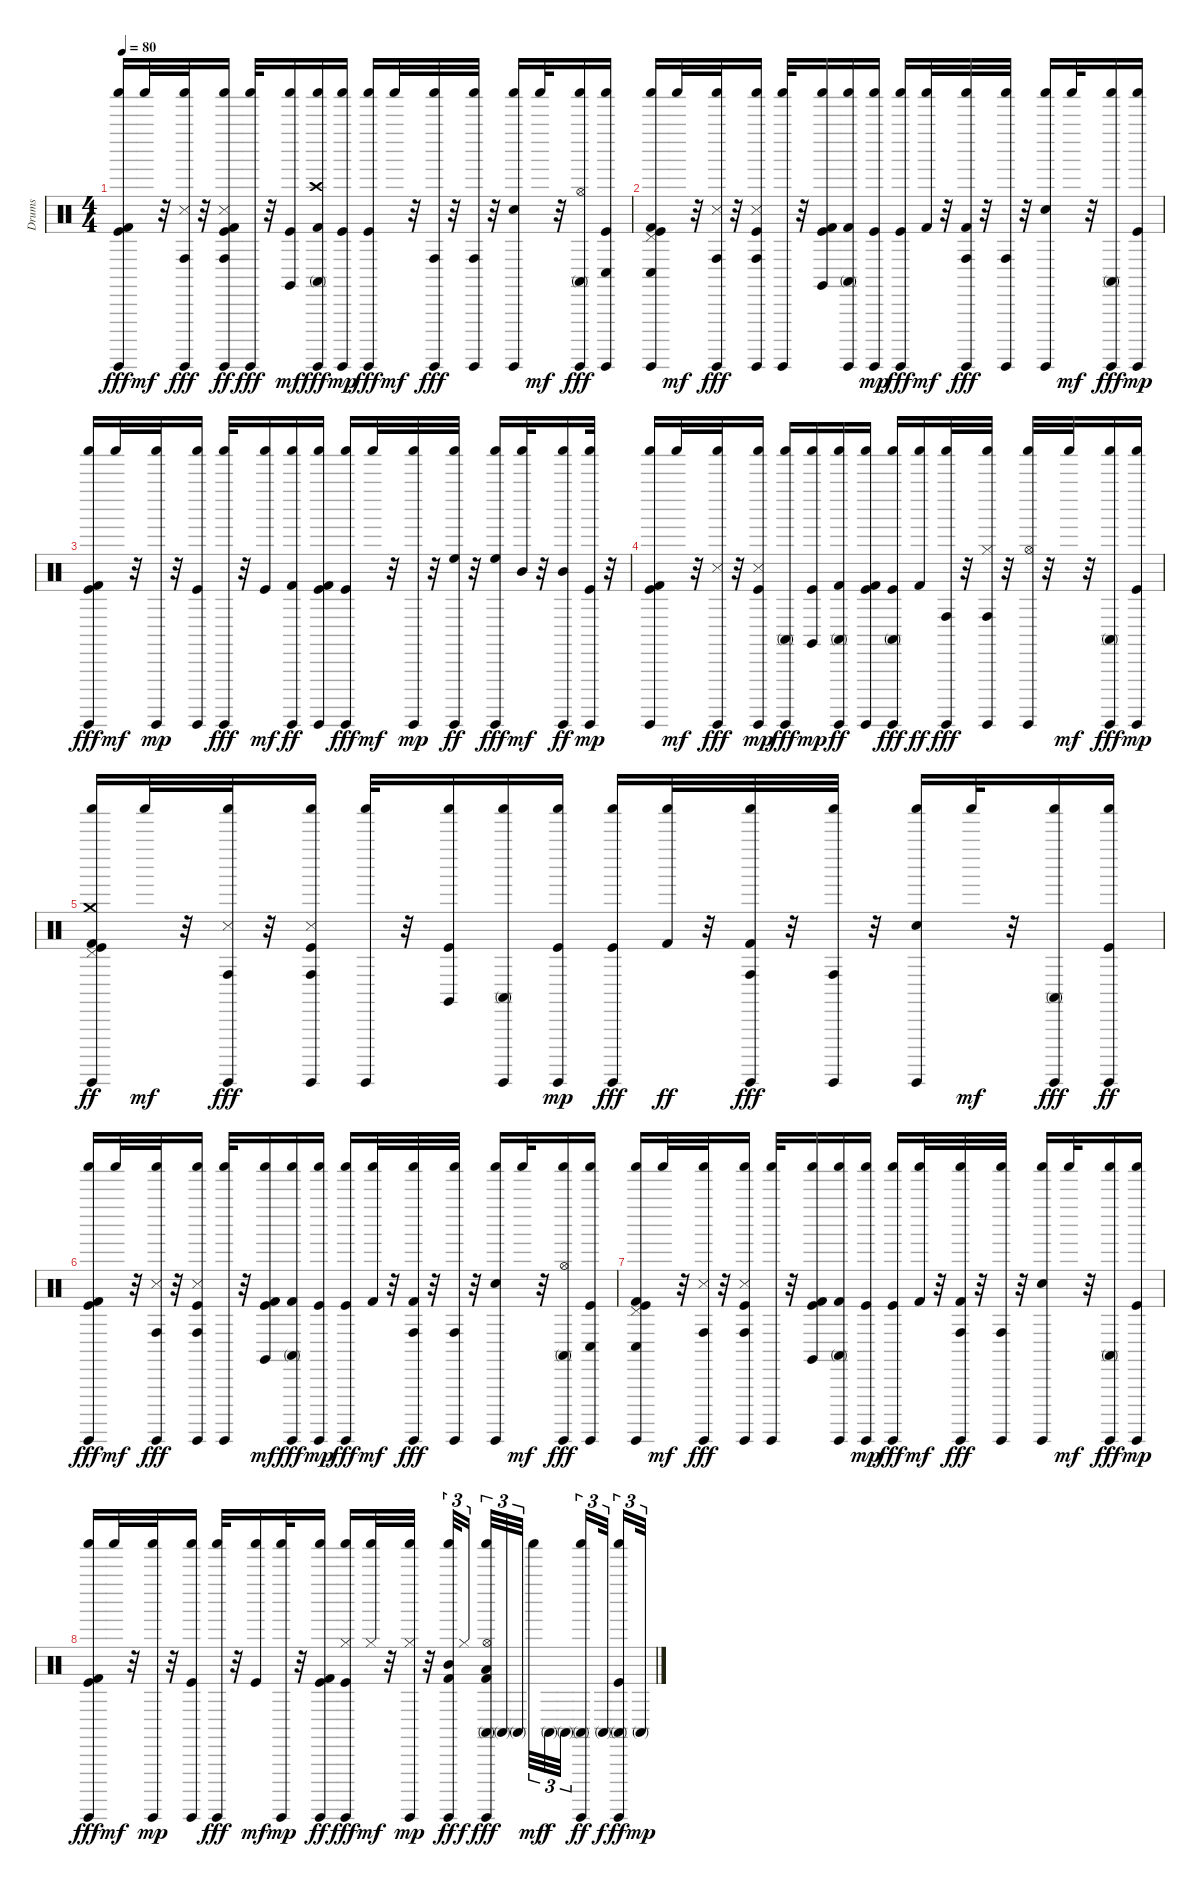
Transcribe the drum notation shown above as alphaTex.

\track ("Drums" "Drums") {instrument percussion}
\staff {score}
\articulation defaults
\ts (4 4)
\tempo 80
\clef neutral
\ks c
("Kick (hit)" "Guiro (hit)" "Kick (hit) 2" "Shaker (hit)").16{dy fff} "Shaker (hit)".32{dy mf} r.32 ("Guiro (hit)" "Shaker (hit)" "Snare (side stick) 3" "Conga high (hit)").32{dy fff} r.32 ("Kick (hit)" "Guiro (hit)" "Shaker (hit)" "Snare (side stick) 3" "Conga high (hit)" "Kick (hit) 2").16{dy ff} ("Guiro (hit)" "Shaker (hit)").32{dy fff} r.32 ("Kick (hit)" "Claves (hit)" "Shaker (hit)").16{dy mf} ("Guiro (hit)" "Shaker (hit)" "Conga high (mute)" "Kick (hit) 2" "Crash high (hit)").16{dy fff} ("Kick (hit)" "Guiro (hit)" "Shaker (hit)").16{dy mp} ("Kick (hit)" "Guiro (hit)" "Shaker (hit)").16{dy fff} "Shaker (hit)".32{dy mf} r.32 ("Guiro (hit)" "Shaker (hit)" "Conga high (hit)").32{dy fff} r.32 ("Guiro (hit)" "Shaker (hit)" "Conga high (hit)").32 r.32 ("Guiro (hit)" "Electric Snare (hit)" "Shaker (hit)").16 "Shaker (hit)".32{dy mf} r.32 ("Guiro (hit)" "Shaker (hit)" "Hi-Hat (open)" "Conga high (mute)").16{dy fff} ("Kick (hit)" "Guiro (hit)" "Shaker (hit)" "Conga low (hit)").16 |
("Kick (hit)" "Guiro (hit)" "Kick (hit) 2" "Shaker (hit)" "Pedal Hi-Hat (hit)" "Conga low (hit)").16 "Shaker (hit)".32{dy mf} r.32 ("Guiro (hit)" "Snare (side stick) 3" "Shaker (hit)" "Conga high (hit)").32{dy fff} r.32 ("Kick (hit)" "Guiro (hit)" "Shaker (hit)" "Snare (side stick) 3" "Conga high (hit)").16 ("Guiro (hit)" "Shaker (hit)").32 r.32 ("Kick (hit)" "Kick (hit) 2" "Shaker (hit)" "Claves (hit)").16 ("Guiro (hit)" "Kick (hit) 2" "Shaker (hit)" "Conga high (mute)").16 ("Kick (hit)" "Guiro (hit)" "Shaker (hit)").16{dy mp} ("Kick (hit)" "Guiro (hit)" "Shaker (hit)").16{dy fff} ("Kick (hit) 2" "Shaker (hit)").32{dy mf} r.32 ("Guiro (hit)" "Kick (hit) 2" "Shaker (hit)" "Conga high (hit)").32{dy fff} r.32 ("Guiro (hit)" "Shaker (hit)" "Conga high (hit)").32 r.32 ("Guiro (hit)" "Electric Snare (hit)" "Shaker (hit)").16 "Shaker (hit)".32{dy mf} r.32 ("Guiro (hit)" "Shaker (hit)" "Conga high (mute)").16{dy fff} ("Kick (hit)" "Guiro (hit)" "Shaker (hit)").16{dy mp} |
("Kick (hit)" "Guiro (hit)" "Kick (hit) 2" "Shaker (hit)").16{dy fff} "Shaker (hit)".32{dy mf} r.32 ("Guiro (hit)" "Shaker (hit)").32{dy mp} r.32 ("Kick (hit)" "Guiro (hit)" "Shaker (hit)").16 ("Guiro (hit)" "Shaker (hit)").32{dy fff} r.32 ("Kick (hit)" "Shaker (hit)").16{dy mf} ("Guiro (hit)" "Shaker (hit)" "Kick (hit) 2").16{dy ff} ("Kick (hit)" "Guiro (hit)" "Shaker (hit)" "Kick (hit) 2").16 ("Kick (hit)" "Guiro (hit)" "Shaker (hit)").16{dy fff} "Shaker (hit)".32{dy mf} r.32 ("Guiro (hit)" "Shaker (hit)").32{dy mp} r.32 ("Guiro (hit)" "Shaker (hit)" "High Floor Tom (hit)").32{dy ff} r.32 ("Guiro (hit)" "Shaker (hit)" "High Floor Tom (hit)").16{dy fff} ("Shaker (hit)" "Mid Tom (hit)").32{dy mf} r.32 ("Guiro (hit)" "Shaker (hit)" "Mid Tom (hit)").16{dy ff} ("Guiro (hit)" "Shaker (hit)" "Kick (hit)").32{dy mp} r.32 |
("Guiro (hit)" "Shaker (hit)" "Kick (hit) 2" "Kick (hit)").16 "Shaker (hit)".32{dy mf} r.32 ("Guiro (hit)" "Shaker (hit)" "Snare (side stick) 3").32{dy fff} r.32 ("Guiro (hit)" "Shaker (hit)" "Snare (side stick) 3" "Kick (hit)").16{dy mp} ("Guiro (hit)" "Shaker (hit)" "Conga high (mute)").16{dy fff} ("Shaker (hit)" "Claves (hit)" "Kick (hit)").16{dy mp} ("Guiro (hit)" "Shaker (hit)" "Conga high (mute)" "Kick (hit) 2").16{dy ff} ("Guiro (hit)" "Shaker (hit)" "Kick (hit)" "Kick (hit) 2").16 ("Guiro (hit)" "Shaker (hit)" "Kick (hit)" "Conga high (mute)").16{dy fff} ("Shaker (hit)" "Kick (hit) 2").16{dy ff} ("Guiro (hit)" "Shaker (hit)" "Conga high (hit)").32{dy fff} r.32 ("Guiro (hit)" "Shaker (hit)" "Conga high (hit)" "Hi-Hat (closed)").32 r.32 ("Guiro (hit)" "Shaker (hit)" "Hi-Hat (open)").32 r.32 "Shaker (hit)".32{dy mf} r.32 ("Guiro (hit)" "Shaker (hit)" "Conga high (mute)").16{dy fff} ("Guiro (hit)" "Shaker (hit)" "Kick (hit)").16{dy mp} |
("Pedal Hi-Hat (hit)" "Shaker (hit)" "Kick (hit)" "Kick (hit) 2" "Crash medium (hit)" "Guiro (hit)").16{dy ff} "Shaker (hit)".32{dy mf} r.32 ("Shaker (hit)" "Guiro (hit)" "Snare (side stick) 3" "Conga high (hit)").32{dy fff} r.32 ("Shaker (hit)" "Kick (hit)" "Guiro (hit)" "Snare (side stick) 3" "Conga high (hit)").16 ("Shaker (hit)" "Guiro (hit)").32 r.32 ("Shaker (hit)" "Kick (hit)" "Claves (hit)").16 ("Shaker (hit)" "Guiro (hit)" "Conga high (mute)").16 ("Shaker (hit)" "Kick (hit)" "Guiro (hit)").16{dy mp} ("Shaker (hit)" "Kick (hit)" "Guiro (hit)").16{dy fff} ("Shaker (hit)" "Kick (hit) 2").32{dy ff} r.32 ("Shaker (hit)" "Kick (hit) 2" "Guiro (hit)" "Conga high (hit)").32{dy fff} r.32 ("Shaker (hit)" "Guiro (hit)" "Conga high (hit)").32 r.32 ("Shaker (hit)" "Guiro (hit)" "Electric Snare (hit)").16 "Shaker (hit)".32{dy mf} r.32 ("Shaker (hit)" "Guiro (hit)" "Conga high (mute)").16{dy fff} ("Shaker (hit)" "Kick (hit)" "Guiro (hit)").16{dy ff} |
("Kick (hit)" "Guiro (hit)" "Kick (hit) 2" "Shaker (hit)").16{dy fff} "Shaker (hit)".32{dy mf} r.32 ("Guiro (hit)" "Shaker (hit)" "Snare (side stick) 3" "Conga high (hit)").32{dy fff} r.32 ("Kick (hit)" "Guiro (hit)" "Shaker (hit)" "Snare (side stick) 3" "Conga high (hit)").16 ("Guiro (hit)" "Shaker (hit)").32 r.32 ("Kick (hit)" "Kick (hit) 2" "Claves (hit)" "Shaker (hit)").16{dy mf} ("Guiro (hit)" "Kick (hit) 2" "Shaker (hit)" "Conga high (mute)").16{dy fff} ("Kick (hit)" "Guiro (hit)" "Shaker (hit)").16{dy mp} ("Kick (hit)" "Guiro (hit)" "Shaker (hit)").16{dy fff} ("Kick (hit) 2" "Shaker (hit)").32{dy mf} r.32 ("Guiro (hit)" "Kick (hit) 2" "Shaker (hit)" "Conga high (hit)").32{dy fff} r.32 ("Guiro (hit)" "Shaker (hit)" "Conga high (hit)").32 r.32 ("Guiro (hit)" "Electric Snare (hit)" "Shaker (hit)").16 "Shaker (hit)".32{dy mf} r.32 ("Guiro (hit)" "Shaker (hit)" "Hi-Hat (open)" "Conga high (mute)").16{dy fff} ("Kick (hit)" "Guiro (hit)" "Shaker (hit)" "Conga low (hit)").16 |
("Kick (hit)" "Guiro (hit)" "Kick (hit) 2" "Shaker (hit)" "Pedal Hi-Hat (hit)" "Conga low (hit)").16 "Shaker (hit)".32{dy mf} r.32 ("Guiro (hit)" "Snare (side stick) 3" "Shaker (hit)" "Conga high (hit)").32{dy fff} r.32 ("Kick (hit)" "Guiro (hit)" "Shaker (hit)" "Snare (side stick) 3" "Conga high (hit)").16 ("Guiro (hit)" "Shaker (hit)").32 r.32 ("Kick (hit)" "Kick (hit) 2" "Shaker (hit)" "Claves (hit)").16 ("Guiro (hit)" "Kick (hit) 2" "Shaker (hit)" "Conga high (mute)").16 ("Kick (hit)" "Guiro (hit)" "Shaker (hit)").16{dy mp} ("Kick (hit)" "Guiro (hit)" "Shaker (hit)").16{dy fff} ("Kick (hit) 2" "Shaker (hit)").32{dy mf} r.32 ("Guiro (hit)" "Kick (hit) 2" "Shaker (hit)" "Conga high (hit)").32{dy fff} r.32 ("Guiro (hit)" "Shaker (hit)" "Conga high (hit)").32 r.32 ("Guiro (hit)" "Electric Snare (hit)" "Shaker (hit)").16 "Shaker (hit)".32{dy mf} r.32 ("Guiro (hit)" "Shaker (hit)" "Conga high (mute)").16{dy fff} ("Kick (hit)" "Guiro (hit)" "Shaker (hit)").16{dy mp} |
("Kick (hit)" "Guiro (hit)" "Kick (hit) 2" "Shaker (hit)").16{dy fff} "Shaker (hit)".32{dy mf} r.32 ("Guiro (hit)" "Shaker (hit)").32{dy mp} r.32 ("Kick (hit)" "Guiro (hit)" "Shaker (hit)").16 ("Guiro (hit)" "Shaker (hit)").32{dy fff} r.32 ("Kick (hit)" "Shaker (hit)").16{dy mf} ("Guiro (hit)" "Shaker (hit)").32{dy mp} r.32 ("Kick (hit)" "Guiro (hit)" "Shaker (hit)" "Kick (hit) 2").16{dy ff} ("Kick (hit)" "Guiro (hit)" "Shaker (hit)" "Hi-Hat (closed)").16{dy fff} ("Shaker (hit)" "Hi-Hat (closed)").32{dy mf} r.32 ("Guiro (hit)" "Shaker (hit)" "Hi-Hat (closed)").32{dy mp} r.32 ("Mid Tom (hit)" "Guiro (hit)" "Shaker (hit)" "Kick (hit) 2").32{tu (3 2) dy ff} "Hi-Hat (closed)".16{tu (3 2) dy f} ("Guiro (hit)" "Shaker (hit)" "Kick (hit) 2" "Conga high (mute)" "Low Floor Tom (hit)" "Hi-Hat (open)").32{tu (3 2) dy fff} "Conga high (mute)".32{tu (3 2)} "Conga high (mute)".32{tu (3 2)} "Shaker (hit)".32{tu (3 2) dy mf} "Conga high (mute)".32{tu (3 2) dy f} "Conga high (mute)".32{tu (3 2)} ("Guiro (hit)" "Shaker (hit)" "Conga high (mute)").16{tu (3 2) dy ff} "Conga high (mute)".32{tu (3 2) dy f} ("Guiro (hit)" "Shaker (hit)" "Kick (hit)" "Conga high (mute)").16{tu (3 2) dy ff} "Conga high (mute)".32{tu (3 2) dy mp}
